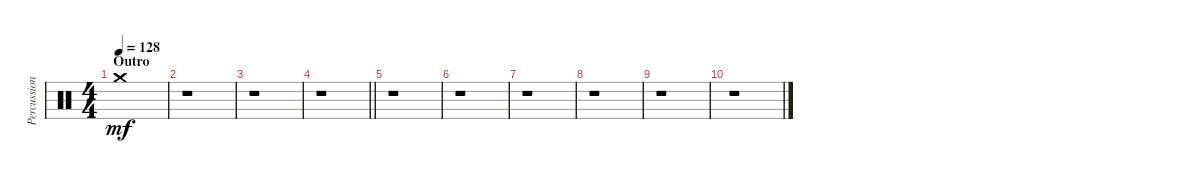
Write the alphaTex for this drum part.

\track ("Percussion" "Percussion") {instrument percussion}
\staff {score}
\articulation defaults
\ts (4 4)
\section ("" "Outro")
\tempo 128
\clef neutral
\ks c "Crash medium (hit)".1{dy mf}
|
r.1 |
r.1 |
\barLineRight lightlight
r.1 |
r.1 |
r.1 |
r.1 |
r.1 |
r.1 |
r.1
